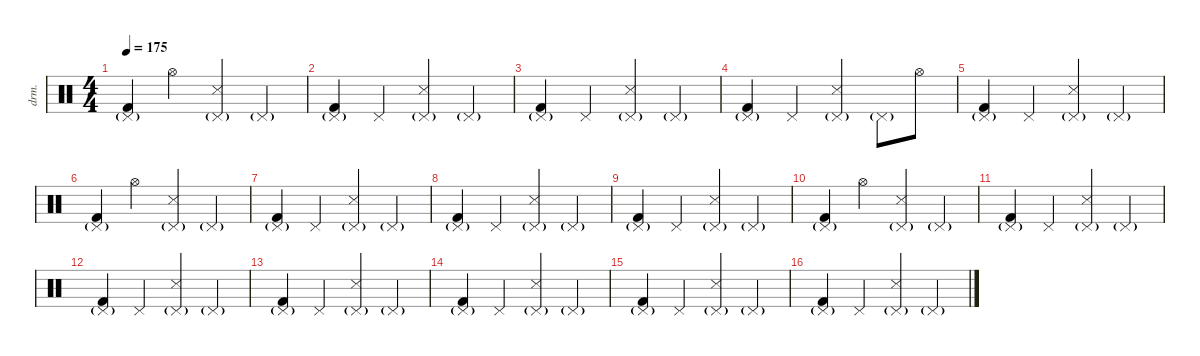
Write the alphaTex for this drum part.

\defaultSystemsLayout 4
\hideDynamics
\bracketExtendMode nobrackets
\otherSystemsTrackNameOrientation horizontal
\track ("Percussion" "drm.") {instrument percussion}
\staff {score}
\articulation defaults
\ts (4 4)
\tempo 175
\clef neutral
\ks c
("Pedal Hi-Hat (hit)"{g} "Kick (hit) 2").4{dy f} "Hi-Hat (open)".4 ("Pedal Hi-Hat (hit)"{g} "Snare (side stick) 3").4 "Pedal Hi-Hat (hit)"{g}.4 |
("Pedal Hi-Hat (hit)"{g} "Kick (hit) 2").4 "Pedal Hi-Hat (hit)".4 ("Pedal Hi-Hat (hit)"{g} "Snare (side stick) 3").4 "Pedal Hi-Hat (hit)"{g}.4 |
("Pedal Hi-Hat (hit)"{g} "Kick (hit) 2").4 "Pedal Hi-Hat (hit)".4 ("Pedal Hi-Hat (hit)"{g} "Snare (side stick) 3").4 "Pedal Hi-Hat (hit)"{g}.4 |
("Pedal Hi-Hat (hit)"{g} "Kick (hit) 2").4 "Pedal Hi-Hat (hit)".4 ("Pedal Hi-Hat (hit)"{g} "Snare (side stick) 3").4 "Pedal Hi-Hat (hit)"{g}.8 "Hi-Hat (open)".8{dy mf} |
("Pedal Hi-Hat (hit)"{g} "Kick (hit) 2").4{dy f} "Pedal Hi-Hat (hit)".4 ("Pedal Hi-Hat (hit)"{g} "Snare (side stick) 3").4 "Pedal Hi-Hat (hit)"{g}.4 |
("Pedal Hi-Hat (hit)"{g} "Kick (hit) 2").4 "Hi-Hat (open)".4 ("Pedal Hi-Hat (hit)"{g} "Snare (side stick) 3").4 "Pedal Hi-Hat (hit)"{g}.4 |
("Pedal Hi-Hat (hit)"{g} "Kick (hit) 2").4 "Pedal Hi-Hat (hit)".4 ("Pedal Hi-Hat (hit)"{g} "Snare (side stick) 3").4 "Pedal Hi-Hat (hit)"{g}.4 |
("Pedal Hi-Hat (hit)"{g} "Kick (hit) 2").4 "Pedal Hi-Hat (hit)".4 ("Pedal Hi-Hat (hit)"{g} "Snare (side stick) 3").4 "Pedal Hi-Hat (hit)"{g}.4 |
("Pedal Hi-Hat (hit)"{g} "Kick (hit) 2").4 "Pedal Hi-Hat (hit)".4 ("Pedal Hi-Hat (hit)"{g} "Snare (side stick) 3").4 "Pedal Hi-Hat (hit)"{g}.4 |
("Pedal Hi-Hat (hit)"{g} "Kick (hit) 2").4 "Hi-Hat (open)".4 ("Pedal Hi-Hat (hit)"{g} "Snare (side stick) 3").4 "Pedal Hi-Hat (hit)"{g}.4 |
("Pedal Hi-Hat (hit)"{g} "Kick (hit) 2").4 "Pedal Hi-Hat (hit)".4 ("Pedal Hi-Hat (hit)"{g} "Snare (side stick) 3").4 "Pedal Hi-Hat (hit)"{g}.4 |
("Pedal Hi-Hat (hit)"{g} "Kick (hit) 2").4 "Pedal Hi-Hat (hit)".4 ("Pedal Hi-Hat (hit)"{g} "Snare (side stick) 3").4 "Pedal Hi-Hat (hit)"{g}.4 |
("Pedal Hi-Hat (hit)"{g} "Kick (hit) 2").4 "Pedal Hi-Hat (hit)".4 ("Pedal Hi-Hat (hit)"{g} "Snare (side stick) 3").4 "Pedal Hi-Hat (hit)"{g}.4 |
("Pedal Hi-Hat (hit)"{g} "Kick (hit) 2").4 "Pedal Hi-Hat (hit)".4 ("Pedal Hi-Hat (hit)"{g} "Snare (side stick) 3").4 "Pedal Hi-Hat (hit)"{g}.4 |
("Pedal Hi-Hat (hit)"{g} "Kick (hit) 2").4 "Pedal Hi-Hat (hit)".4 ("Pedal Hi-Hat (hit)"{g} "Snare (side stick) 3").4 "Pedal Hi-Hat (hit)"{g}.4 |
("Pedal Hi-Hat (hit)"{g} "Kick (hit) 2").4 "Pedal Hi-Hat (hit)".4 ("Pedal Hi-Hat (hit)"{g} "Snare (side stick) 3").4 "Pedal Hi-Hat (hit)"{g}.4
